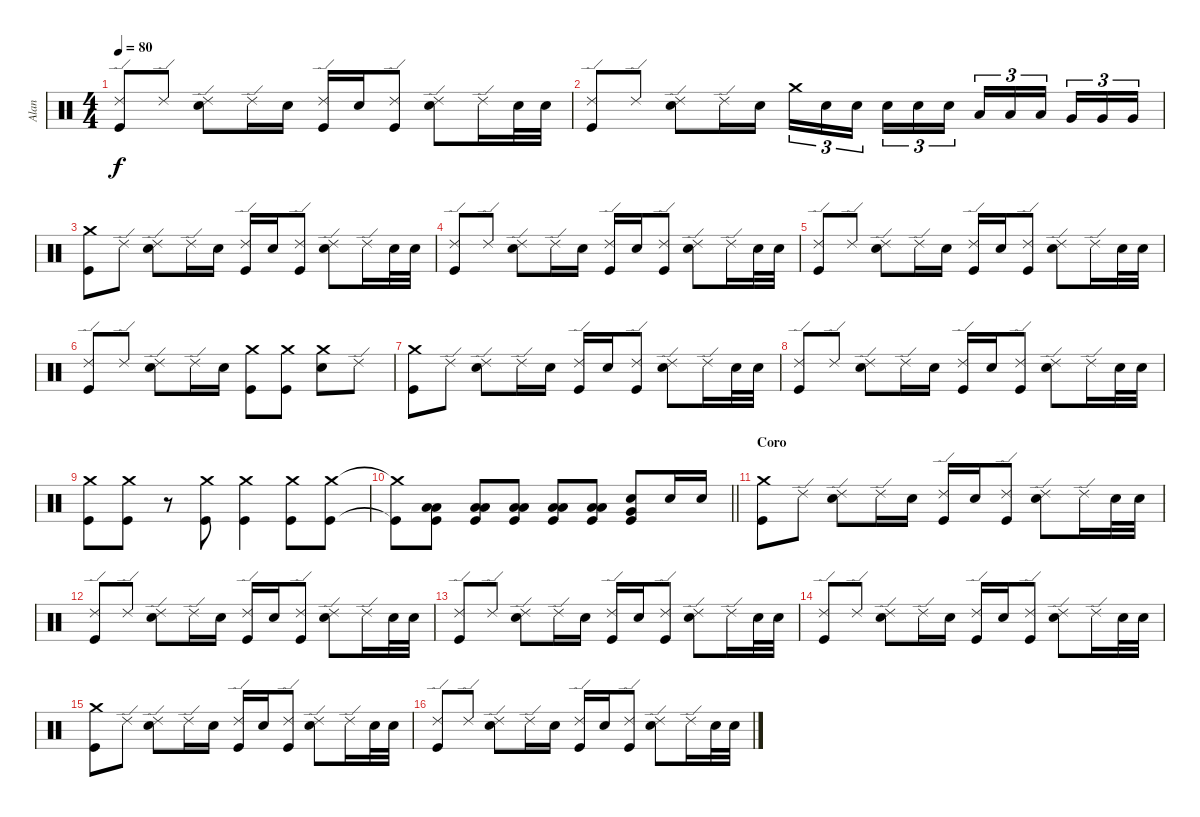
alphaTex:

\track ("Alan" "Alan") {instrument percussion}
\staff {score}
\articulation defaults
\ts (4 4)
\tempo 80
\clef neutral
\ks c
("Ride (edge) 2" "Kick (hit)").8{dy f} "Ride (edge) 2".8 ("Ride (edge) 2" "Snare (hit) 2").8 "Ride (edge) 2".16 "Snare (hit) 2".16 ("Ride (edge) 2" "Kick (hit)").16 "Snare (hit) 2".16 ("Ride (edge) 2" "Kick (hit)").8 ("Ride (edge) 2" "Snare (hit) 2").8 "Ride (edge) 2".16 "Snare (hit) 2".32 "Snare (hit) 2".32 |
("Ride (edge) 2" "Kick (hit)").8 "Ride (edge) 2".8 ("Ride (edge) 2" "Snare (hit) 2").8 "Ride (edge) 2".16 "Snare (hit) 2".16 "Crash medium (hit)".16{tu (3 2)} "Snare (hit) 2".16{tu (3 2)} "Snare (hit) 2".16{tu (3 2) beam splitsecondary} "Snare (hit) 2".16{tu (3 2)} "Snare (hit) 2".16{tu (3 2)} "Snare (hit) 2".16{tu (3 2)} "Low Tom (hit)".16{tu (3 2)} "Low Tom (hit)".16{tu (3 2)} "Low Tom (hit)".16{tu (3 2) beam splitsecondary} "Very Low Tom (hit)".16{tu (3 2)} "Very Low Tom (hit)".16{tu (3 2)} "Very Low Tom (hit)".16{tu (3 2)} |
("Crash medium (hit)" "Kick (hit)").8 "Ride (edge) 2".8 ("Ride (edge) 2" "Snare (hit) 2").8 "Ride (edge) 2".16 "Snare (hit) 2".16 ("Ride (edge) 2" "Kick (hit)").16 "Snare (hit) 2".16 ("Ride (edge) 2" "Kick (hit)").8 ("Ride (edge) 2" "Snare (hit) 2").8 "Ride (edge) 2".16 "Snare (hit) 2".32 "Snare (hit) 2".32 |
("Ride (edge) 2" "Kick (hit)").8 "Ride (edge) 2".8 ("Ride (edge) 2" "Snare (hit) 2").8 "Ride (edge) 2".16 "Snare (hit) 2".16 ("Ride (edge) 2" "Kick (hit)").16 "Snare (hit) 2".16 ("Ride (edge) 2" "Kick (hit)").8 ("Ride (edge) 2" "Snare (hit) 2").8 "Ride (edge) 2".16 "Snare (hit) 2".32 "Snare (hit) 2".32 |
("Ride (edge) 2" "Kick (hit)").8 "Ride (edge) 2".8 ("Ride (edge) 2" "Snare (hit) 2").8 "Ride (edge) 2".16 "Snare (hit) 2".16 ("Ride (edge) 2" "Kick (hit)").16 "Snare (hit) 2".16 ("Ride (edge) 2" "Kick (hit)").8 ("Ride (edge) 2" "Snare (hit) 2").8 "Ride (edge) 2".16 "Snare (hit) 2".32 "Snare (hit) 2".32 |
("Ride (edge) 2" "Kick (hit)").8 "Ride (edge) 2".8 ("Ride (edge) 2" "Snare (hit) 2").8 "Ride (edge) 2".16 "Snare (hit) 2".16 ("Crash medium (hit)" "Kick (hit)").8 ("Crash medium (hit)" "Kick (hit)").8 ("Crash medium (hit)" "Snare (hit) 2").8 "Ride (edge) 2".8 |
("Crash medium (hit)" "Kick (hit)").8 "Ride (edge) 2".8 ("Ride (edge) 2" "Snare (hit) 2").8 "Ride (edge) 2".16 "Snare (hit) 2".16 ("Ride (edge) 2" "Kick (hit)").16 "Snare (hit) 2".16 ("Ride (edge) 2" "Kick (hit)").8 ("Ride (edge) 2" "Snare (hit) 2").8 "Ride (edge) 2".16 "Snare (hit) 2".32 "Snare (hit) 2".32 |
("Ride (edge) 2" "Kick (hit)").8 "Ride (edge) 2".8 ("Ride (edge) 2" "Snare (hit) 2").8 "Ride (edge) 2".16 "Snare (hit) 2".16 ("Ride (edge) 2" "Kick (hit)").16 "Snare (hit) 2".16 ("Ride (edge) 2" "Kick (hit)").8 ("Ride (edge) 2" "Snare (hit) 2").8 "Ride (edge) 2".16 "Snare (hit) 2".32 "Snare (hit) 2".32 |
("Crash medium (hit)" "Kick (hit)").8 ("Crash medium (hit)" "Kick (hit)").8 r.8 ("Crash medium (hit)" "Kick (hit)").8 ("Crash medium (hit)" "Kick (hit)").4 ("Crash medium (hit)" "Kick (hit)").8 ("Crash medium (hit)" "Kick (hit)").8 |
\barLineRight lightlight
("Crash medium (hit)"{t} "Kick (hit)"{t}).8 ("Low Floor Tom (hit)" "Kick (hit)" "Low Tom (hit)").8 ("Low Floor Tom (hit)" "Kick (hit)" "Low Tom (hit)").8 ("Low Floor Tom (hit)" "Kick (hit)" "Low Tom (hit)").8 ("Low Floor Tom (hit)" "Kick (hit)" "Low Tom (hit)").8 ("Low Floor Tom (hit)" "Kick (hit)" "Low Tom (hit)").8 ("Kick (hit)" "Very Low Tom (hit)" "Snare (hit) 2").8 "Snare (hit) 2".16 "Snare (hit) 2".16 |
\section ("" "Coro")
("Crash medium (hit)" "Kick (hit)").8 "Ride (edge) 2".8 ("Ride (edge) 2" "Snare (hit) 2").8 "Ride (edge) 2".16 "Snare (hit) 2".16 ("Ride (edge) 2" "Kick (hit)").16 "Snare (hit) 2".16 ("Ride (edge) 2" "Kick (hit)").8 ("Ride (edge) 2" "Snare (hit) 2").8 "Ride (edge) 2".16 "Snare (hit) 2".32 "Snare (hit) 2".32 |
("Ride (edge) 2" "Kick (hit)").8 "Ride (edge) 2".8 ("Ride (edge) 2" "Snare (hit) 2").8 "Ride (edge) 2".16 "Snare (hit) 2".16 ("Ride (edge) 2" "Kick (hit)").16 "Snare (hit) 2".16 ("Ride (edge) 2" "Kick (hit)").8 ("Ride (edge) 2" "Snare (hit) 2").8 "Ride (edge) 2".16 "Snare (hit) 2".32 "Snare (hit) 2".32 |
("Ride (edge) 2" "Kick (hit)").8 "Ride (edge) 2".8 ("Ride (edge) 2" "Snare (hit) 2").8 "Ride (edge) 2".16 "Snare (hit) 2".16 ("Ride (edge) 2" "Kick (hit)").16 "Snare (hit) 2".16 ("Ride (edge) 2" "Kick (hit)").8 ("Ride (edge) 2" "Snare (hit) 2").8 "Ride (edge) 2".16 "Snare (hit) 2".32 "Snare (hit) 2".32 |
("Ride (edge) 2" "Kick (hit)").8 "Ride (edge) 2".8 ("Ride (edge) 2" "Snare (hit) 2").8 "Ride (edge) 2".16 "Snare (hit) 2".16 ("Ride (edge) 2" "Kick (hit)").16 "Snare (hit) 2".16 ("Ride (edge) 2" "Kick (hit)").8 ("Ride (edge) 2" "Snare (hit) 2").8 "Ride (edge) 2".16 "Snare (hit) 2".32 "Snare (hit) 2".32 |
("Crash medium (hit)" "Kick (hit)").8 "Ride (edge) 2".8 ("Ride (edge) 2" "Snare (hit) 2").8 "Ride (edge) 2".16 "Snare (hit) 2".16 ("Ride (edge) 2" "Kick (hit)").16 "Snare (hit) 2".16 ("Ride (edge) 2" "Kick (hit)").8 ("Ride (edge) 2" "Snare (hit) 2").8 "Ride (edge) 2".16 "Snare (hit) 2".32 "Snare (hit) 2".32 |
("Ride (edge) 2" "Kick (hit)").8 "Ride (edge) 2".8 ("Ride (edge) 2" "Snare (hit) 2").8 "Ride (edge) 2".16 "Snare (hit) 2".16 ("Ride (edge) 2" "Kick (hit)").16 "Snare (hit) 2".16 ("Ride (edge) 2" "Kick (hit)").8 ("Ride (edge) 2" "Snare (hit) 2").8 "Ride (edge) 2".16 "Snare (hit) 2".32 "Snare (hit) 2".32
